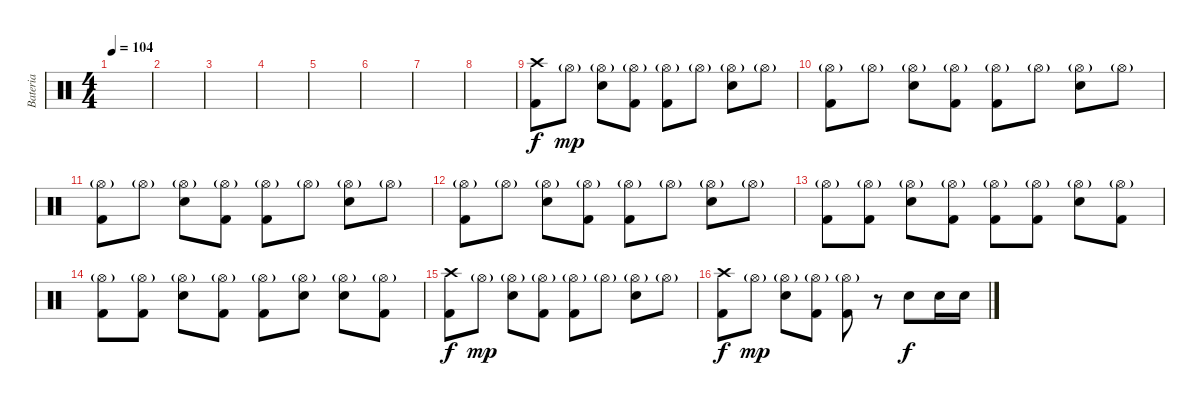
\track ("Bateria" "Bateria") {instrument percussion}
\staff {score}
\articulation defaults
\ts (4 4)
\tempo 104
\clef neutral
\ks c
|
|
|
|
|
|
|
|
("Crash high (hit)" "Kick (hit) 2").8 "Hi-Hat (open)"{g}.8{dy mp} ("Hi-Hat (open)"{g} "Snare (hit) 2").8 ("Hi-Hat (open)"{g} "Kick (hit) 2").8 ("Hi-Hat (open)"{g} "Kick (hit) 2").8 "Hi-Hat (open)"{g}.8 ("Hi-Hat (open)"{g} "Snare (hit) 2").8 "Hi-Hat (open)"{g}.8 |
("Hi-Hat (open)"{g} "Kick (hit) 2").8 "Hi-Hat (open)"{g}.8 ("Hi-Hat (open)"{g} "Snare (hit) 2").8 ("Hi-Hat (open)"{g} "Kick (hit) 2").8 ("Hi-Hat (open)"{g} "Kick (hit) 2").8 "Hi-Hat (open)"{g}.8 ("Hi-Hat (open)"{g} "Snare (hit) 2").8 "Hi-Hat (open)"{g}.8 |
("Hi-Hat (open)"{g} "Kick (hit) 2").8 "Hi-Hat (open)"{g}.8 ("Hi-Hat (open)"{g} "Snare (hit) 2").8 ("Hi-Hat (open)"{g} "Kick (hit) 2").8 ("Hi-Hat (open)"{g} "Kick (hit) 2").8 "Hi-Hat (open)"{g}.8 ("Hi-Hat (open)"{g} "Snare (hit) 2").8 "Hi-Hat (open)"{g}.8 |
("Hi-Hat (open)"{g} "Kick (hit) 2").8 "Hi-Hat (open)"{g}.8 ("Hi-Hat (open)"{g} "Snare (hit) 2").8 ("Hi-Hat (open)"{g} "Kick (hit) 2").8 ("Hi-Hat (open)"{g} "Kick (hit) 2").8 "Hi-Hat (open)"{g}.8 ("Hi-Hat (open)"{g} "Snare (hit) 2").8 "Hi-Hat (open)"{g}.8 |
("Hi-Hat (open)"{g} "Kick (hit) 2").8 ("Hi-Hat (open)"{g} "Kick (hit) 2").8 ("Hi-Hat (open)"{g} "Snare (hit) 2").8 ("Hi-Hat (open)"{g} "Kick (hit) 2").8 ("Hi-Hat (open)"{g} "Kick (hit) 2").8 ("Hi-Hat (open)"{g} "Kick (hit) 2").8 ("Hi-Hat (open)"{g} "Snare (hit) 2").8 ("Hi-Hat (open)"{g} "Kick (hit) 2").8 |
("Hi-Hat (open)"{g} "Kick (hit) 2").8 ("Hi-Hat (open)"{g} "Kick (hit) 2").8 ("Hi-Hat (open)"{g} "Snare (hit) 2").8 ("Hi-Hat (open)"{g} "Kick (hit) 2").8 ("Hi-Hat (open)"{g} "Kick (hit) 2").8 ("Hi-Hat (open)"{g} "Snare (hit) 2").8 ("Hi-Hat (open)"{g} "Snare (hit) 2").8 ("Hi-Hat (open)"{g} "Kick (hit) 2").8 |
("Crash high (hit)" "Kick (hit) 2").8{dy f} "Hi-Hat (open)"{g}.8{dy mp} ("Hi-Hat (open)"{g} "Snare (hit) 2").8 ("Hi-Hat (open)"{g} "Kick (hit) 2").8 ("Hi-Hat (open)"{g} "Kick (hit) 2").8 "Hi-Hat (open)"{g}.8 ("Hi-Hat (open)"{g} "Snare (hit) 2").8 "Hi-Hat (open)"{g}.8 |
("Crash high (hit)" "Kick (hit) 2").8{dy f} "Hi-Hat (open)"{g}.8{dy mp} ("Hi-Hat (open)"{g} "Snare (hit) 2").8 ("Hi-Hat (open)"{g} "Kick (hit) 2").8 ("Hi-Hat (open)"{g} "Kick (hit) 2").8 r.8 "Snare (hit) 2".8{dy f} "Snare (hit) 2".16 "Snare (hit) 2".16
